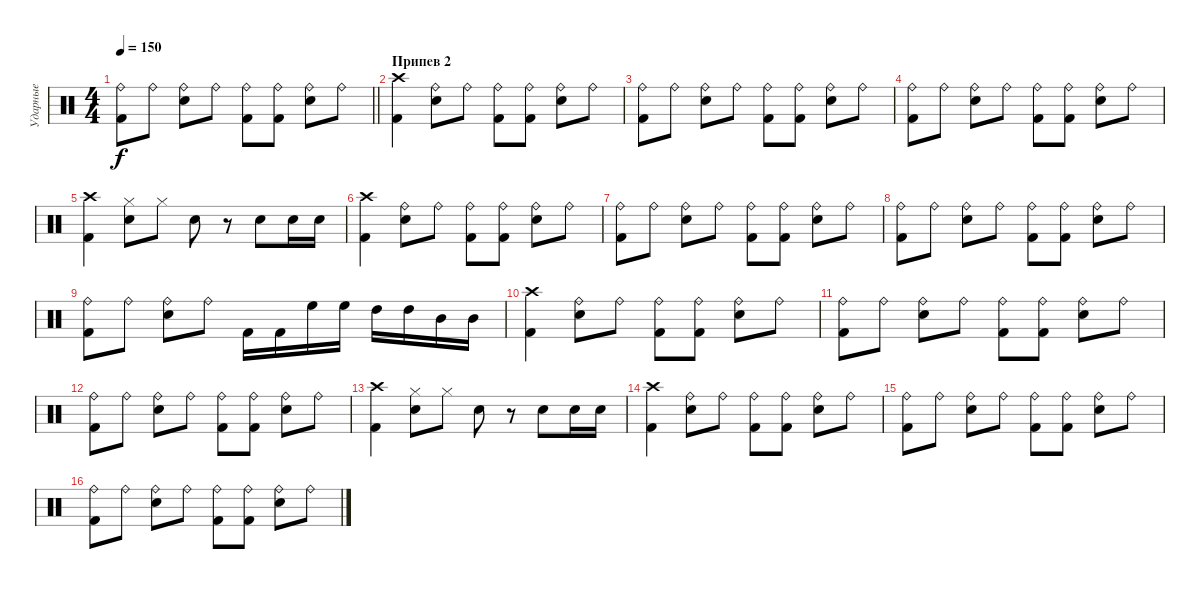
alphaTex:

\track ("Ударные" "Ударные") {instrument percussion}
\staff {score}
\articulation defaults
\ts (4 4)
\tempo 150
\clef neutral
\barLineRight lightlight
\ks c
("Ride (bell)" "Kick (hit) 2").8{dy f} "Ride (bell)".8 ("Ride (bell)" "Electric Snare (hit)").8 "Ride (bell)".8 ("Ride (bell)" "Kick (hit) 2").8 ("Ride (bell)" "Kick (hit) 2").8 ("Ride (bell)" "Electric Snare (hit)").8 "Ride (bell)".8 |
\section ("" "Припев 2")
("Crash high (hit)" "Kick (hit) 2").4 ("Ride (bell)" "Electric Snare (hit)").8 "Ride (bell)".8 ("Ride (bell)" "Kick (hit) 2").8 ("Ride (bell)" "Kick (hit) 2").8 ("Ride (bell)" "Electric Snare (hit)").8 "Ride (bell)".8 |
("Ride (bell)" "Kick (hit) 2").8 "Ride (bell)".8 ("Ride (bell)" "Electric Snare (hit)").8 "Ride (bell)".8 ("Ride (bell)" "Kick (hit) 2").8 ("Ride (bell)" "Kick (hit) 2").8 ("Ride (bell)" "Electric Snare (hit)").8 "Ride (bell)".8 |
("Ride (bell)" "Kick (hit) 2").8 "Ride (bell)".8 ("Ride (bell)" "Electric Snare (hit)").8 "Ride (bell)".8 ("Ride (bell)" "Kick (hit) 2").8 ("Ride (bell)" "Kick (hit) 2").8 ("Ride (bell)" "Electric Snare (hit)").8 "Ride (bell)".8 |
("Crash high (hit)" "Kick (hit) 2").4 ("Hi-Hat (closed)" "Electric Snare (hit)").8 "Hi-Hat (closed)".8 "Electric Snare (hit)".8 r.8 "Electric Snare (hit)".8 "Electric Snare (hit)".16 "Electric Snare (hit)".16 |
("Crash high (hit)" "Kick (hit) 2").4 ("Ride (bell)" "Electric Snare (hit)").8 "Ride (bell)".8 ("Ride (bell)" "Kick (hit) 2").8 ("Ride (bell)" "Kick (hit) 2").8 ("Ride (bell)" "Electric Snare (hit)").8 "Ride (bell)".8 |
("Ride (bell)" "Kick (hit) 2").8 "Ride (bell)".8 ("Ride (bell)" "Electric Snare (hit)").8 "Ride (bell)".8 ("Ride (bell)" "Kick (hit) 2").8 ("Ride (bell)" "Kick (hit) 2").8 ("Ride (bell)" "Electric Snare (hit)").8 "Ride (bell)".8 |
("Ride (bell)" "Kick (hit) 2").8 "Ride (bell)".8 ("Ride (bell)" "Electric Snare (hit)").8 "Ride (bell)".8 ("Ride (bell)" "Kick (hit) 2").8 ("Ride (bell)" "Kick (hit) 2").8 ("Ride (bell)" "Electric Snare (hit)").8 "Ride (bell)".8 |
("Ride (bell)" "Kick (hit) 2").8 "Ride (bell)".8 ("Ride (bell)" "Electric Snare (hit)").8 "Ride (bell)".8 "Kick (hit) 2".16 "Kick (hit) 2".16 "High Floor Tom (hit)".16 "High Floor Tom (hit)".16 "High Tom (hit)".16 "High Tom (hit)".16 "Mid Tom (hit)".16 "Mid Tom (hit)".16 |
("Crash high (hit)" "Kick (hit) 2").4 ("Ride (bell)" "Electric Snare (hit)").8 "Ride (bell)".8 ("Ride (bell)" "Kick (hit) 2").8 ("Ride (bell)" "Kick (hit) 2").8 ("Ride (bell)" "Electric Snare (hit)").8 "Ride (bell)".8 |
("Ride (bell)" "Kick (hit) 2").8 "Ride (bell)".8 ("Ride (bell)" "Electric Snare (hit)").8 "Ride (bell)".8 ("Ride (bell)" "Kick (hit) 2").8 ("Ride (bell)" "Kick (hit) 2").8 ("Ride (bell)" "Electric Snare (hit)").8 "Ride (bell)".8 |
("Ride (bell)" "Kick (hit) 2").8 "Ride (bell)".8 ("Ride (bell)" "Electric Snare (hit)").8 "Ride (bell)".8 ("Ride (bell)" "Kick (hit) 2").8 ("Ride (bell)" "Kick (hit) 2").8 ("Ride (bell)" "Electric Snare (hit)").8 "Ride (bell)".8 |
("Crash high (hit)" "Kick (hit) 2").4 ("Hi-Hat (closed)" "Electric Snare (hit)").8 "Hi-Hat (closed)".8 "Electric Snare (hit)".8 r.8 "Electric Snare (hit)".8 "Electric Snare (hit)".16 "Electric Snare (hit)".16 |
("Crash high (hit)" "Kick (hit) 2").4 ("Ride (bell)" "Electric Snare (hit)").8 "Ride (bell)".8 ("Ride (bell)" "Kick (hit) 2").8 ("Ride (bell)" "Kick (hit) 2").8 ("Ride (bell)" "Electric Snare (hit)").8 "Ride (bell)".8 |
("Ride (bell)" "Kick (hit) 2").8 "Ride (bell)".8 ("Ride (bell)" "Electric Snare (hit)").8 "Ride (bell)".8 ("Ride (bell)" "Kick (hit) 2").8 ("Ride (bell)" "Kick (hit) 2").8 ("Ride (bell)" "Electric Snare (hit)").8 "Ride (bell)".8 |
("Ride (bell)" "Kick (hit) 2").8 "Ride (bell)".8 ("Ride (bell)" "Electric Snare (hit)").8 "Ride (bell)".8 ("Ride (bell)" "Kick (hit) 2").8 ("Ride (bell)" "Kick (hit) 2").8 ("Ride (bell)" "Electric Snare (hit)").8 "Ride (bell)".8
